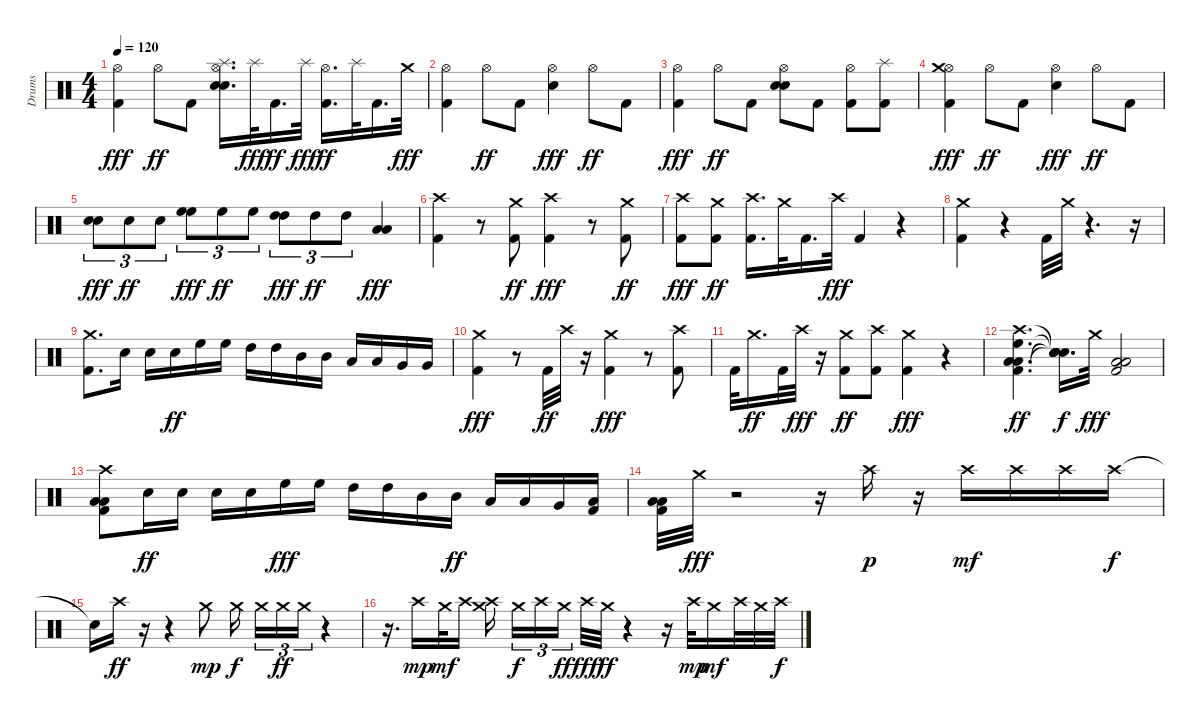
\track ("Drums" "Drums") {instrument percussion}
\staff {score}
\articulation defaults
\ts (4 4)
\tempo 120
\clef neutral
\ks c
("Hi-Hat (open)" "Kick (hit) 2").4{dy fff} "Hi-Hat (open)".8{dy ff} "Kick (hit) 2".8 ("Snare (hit) 2" "Splash (hit)" "Hi-Hat (open)" "Electric Snare (hit)").16{d} "Splash (hit)".32{dy fff} "Kick (hit) 2".16{d dy ff} "Splash (hit)".32{dy fff} ("Hi-Hat (open)" "Kick (hit) 2").16{d dy ff} "Splash (hit)".32 "Kick (hit) 2".16{d} "Crash medium (hit)".32{dy fff} |
("Hi-Hat (open)" "Kick (hit) 2").4 "Hi-Hat (open)".8{dy ff} "Kick (hit) 2".8 ("Hi-Hat (open)" "Snare (hit) 2").4{dy fff} "Hi-Hat (open)".8{dy ff} "Kick (hit) 2".8 |
("Hi-Hat (open)" "Kick (hit) 2").4{dy fff} "Hi-Hat (open)".8{dy ff} "Kick (hit) 2".8 ("Snare (hit) 2" "Hi-Hat (open)" "Electric Snare (hit)").8 "Kick (hit) 2".8 ("Hi-Hat (open)" "Kick (hit) 2").8 ("Kick (hit) 2" "Splash (hit)").8 |
("Hi-Hat (open)" "Kick (hit) 2" "Crash medium (hit)").4{dy fff} "Hi-Hat (open)".8{dy ff} "Kick (hit) 2".8 ("Hi-Hat (open)" "Snare (hit) 2").4{dy fff} "Hi-Hat (open)".8{dy ff} "Kick (hit) 2".8 |
("Snare (hit) 2" "Electric Snare (hit)").8{tu (3 2) dy fff} "Snare (hit) 2".8{tu (3 2) dy ff} "Snare (hit) 2".8{tu (3 2)} ("High Floor Tom (hit)" "High Floor Tom (hit)").8{tu (3 2) dy fff} "High Floor Tom (hit)".8{tu (3 2) dy ff} "High Floor Tom (hit)".8{tu (3 2)} ("High Tom (hit)" "High Tom (hit)").8{tu (3 2) dy fff} "High Tom (hit)".8{tu (3 2) dy ff} "High Tom (hit)".8{tu (3 2)} ("Low Floor Tom (hit)" "Low Floor Tom (hit)").4{dy fff} |
("Kick (hit) 2" "Crash high (hit)").4 r.8 ("Kick (hit) 2" "Crash medium (hit)").8{dy ff} ("Kick (hit) 2" "Crash high (hit)").4{dy fff} r.8 ("Kick (hit) 2" "Crash medium (hit)").8{dy ff} |
("Crash high (hit)" "Kick (hit) 2").8{dy fff} ("Kick (hit) 2" "Crash medium (hit)").8{dy ff} ("Crash high (hit)" "Kick (hit) 2").16{d} "Crash medium (hit)".32 "Kick (hit) 2".16{d} "Crash high (hit)".32{dy fff} "Kick (hit) 2".4 r.4 |
("Kick (hit) 2" "Crash medium (hit)").4 r.4 "Kick (hit) 2".32 "Crash medium (hit)".32 r.4{d} r.16 |
("Crash medium (hit)" "Kick (hit) 2").8{d} "Snare (hit) 2".16 "Electric Snare (hit)".16 "Electric Snare (hit)".16{dy ff} "High Floor Tom (hit)".16 "High Floor Tom (hit)".16 "High Tom (hit)".16 "High Tom (hit)".16 "Mid Tom (hit)".16 "Mid Tom (hit)".16 "Low Tom (hit)".16 "Low Tom (hit)".16 "Very Low Tom (hit)".16 "Very Low Tom (hit)".16 |
("Kick (hit) 2" "Crash medium (hit)").4{dy fff} r.8 "Kick (hit) 2".32{dy ff} "Crash high (hit)".32 r.16 ("Kick (hit) 2" "Crash medium (hit)").4{dy fff} r.8 ("Kick (hit) 2" "Crash high (hit)").8 |
"Kick (hit) 2".32 "Crash medium (hit)".16{d dy ff} "Kick (hit) 2".32 "Crash high (hit)".32{dy fff} r.16 ("Kick (hit) 2" "Crash medium (hit)").8{dy ff} ("Crash high (hit)" "Kick (hit) 2").8 ("Crash medium (hit)" "Kick (hit) 2").4{dy fff} r.4 |
("Crash high (hit)" "High Floor Tom (hit)" "Low Floor Tom (hit)" "Kick (hit) 2" "Low Floor Tom (hit)").4{d dy ff} ("Snare (hit)"{t} "Snare (hit)"{t} "Snare (hit)"{t} "Snare (hit)"{t} "Snare (hit)"{t}).16{d dy f} "Crash medium (hit)".32{dy fff} ("Low Floor Tom (hit)" "Low Floor Tom (hit)" "Kick (hit) 2").2 |
("Low Floor Tom (hit)" "Kick (hit) 2" "Low Floor Tom (hit)" "Crash high (hit)").8 "Snare (hit) 2".16{dy ff} "Electric Snare (hit)".16 "Snare (hit) 2".16 "Electric Snare (hit)".16 "High Floor Tom (hit)".16{dy fff} "High Floor Tom (hit)".16 "High Tom (hit)".16 "High Tom (hit)".16 "Mid Tom (hit)".16 "Mid Tom (hit)".16{dy ff} "Low Tom (hit)".16 "Low Tom (hit)".16 "Very Low Tom (hit)".16 ("Kick (hit) 2" "Low Floor Tom (hit)").16 |
("Low Floor Tom (hit)" "Kick (hit) 2" "Low Floor Tom (hit)").32 "Crash medium (hit)".32{dy fff} r.2 r.16 "Crash high (hit)".16{dy p} r.16 "Crash high (hit)".16{dy mf} "Crash high (hit)".16 "Crash high (hit)".16 "Crash high (hit)".16{dy f} |
"Snare (hit)"{t}.16 "Crash high (hit)".16{dy ff} r.16 r.4 "Crash medium (hit)".8{dy mp} "Crash medium (hit)".16{dy f beam splitsecondary} "Crash medium (hit)".16{tu (3 2)} "Crash medium (hit)".16{tu (3 2) dy ff} "Crash medium (hit)".16{tu (3 2)} r.4 |
r.16{d} "Crash high (hit)".16{dy mp} "Crash medium (hit)".32{dy mf} "Crash high (hit)".16 ("Crash medium (hit)" "Crash high (hit)").16{beam splitsecondary} "Crash medium (hit)".16{tu (3 2) dy f} "Crash high (hit)".16{tu (3 2)} "Crash medium (hit)".16{tu (3 2) dy ff beam splitsecondary} "Crash high (hit)".32{dy fff} "Crash medium (hit)".32{dy ff} r.4 r.16 "Crash high (hit)".32{dy mp} "Crash medium (hit)".16{dy mf} "Crash high (hit)".32 "Crash medium (hit)".32 "Crash high (hit)".32{dy f}
